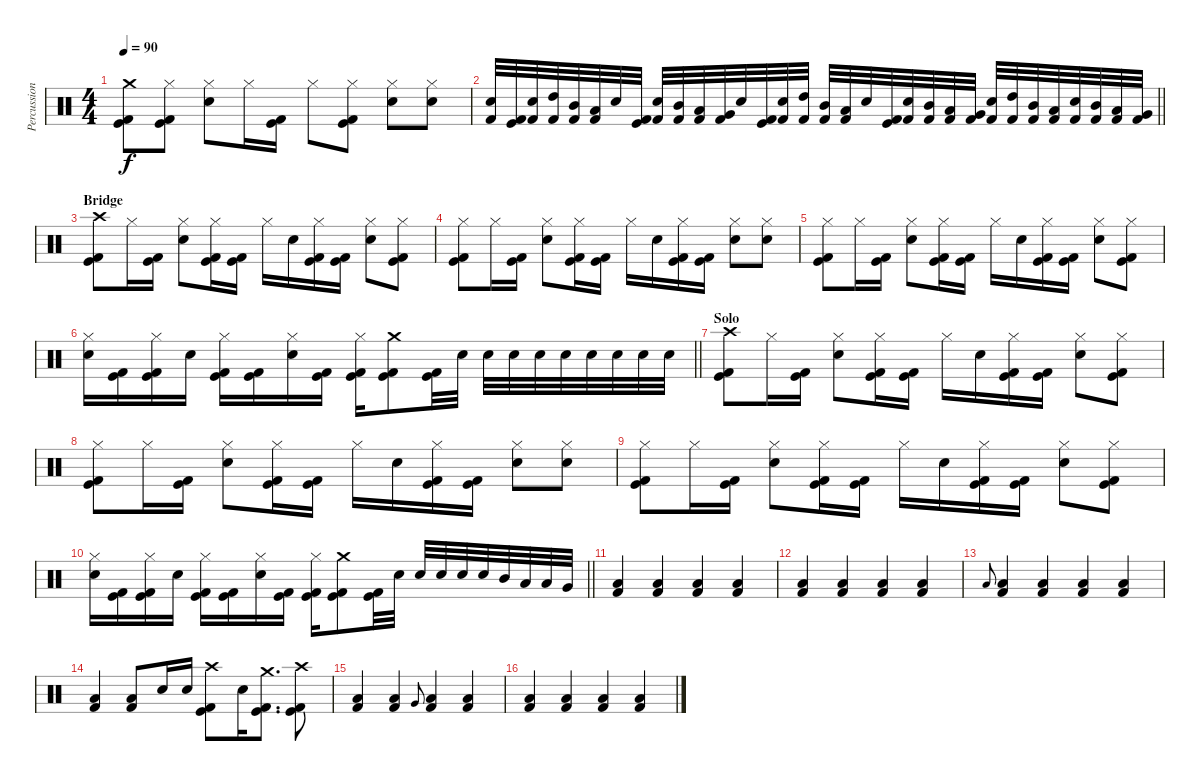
\track ("Percussion" "Percussion") {instrument percussion}
\staff {score}
\articulation defaults
\ts (4 4)
\tempo 90
\clef neutral
\ks c
("Crash medium (hit)" "Kick (hit)" "Kick (hit) 2").8{dy f} ("Hi-Hat (closed)" "Kick (hit)" "Kick (hit) 2").8 ("Hi-Hat (closed)" "Electric Snare (hit)").8 "Hi-Hat (closed)".16 ("Kick (hit)" "Kick (hit) 2").16 "Hi-Hat (closed)".8 ("Hi-Hat (closed)" "Kick (hit)" "Kick (hit) 2").8 ("Hi-Hat (closed)" "Electric Snare (hit)").8 ("Hi-Hat (closed)" "Electric Snare (hit)").8 |
\barLineRight lightlight
("Electric Snare (hit)" "Kick (hit) 2").32 ("Kick (hit)" "Kick (hit) 2").32 ("Electric Snare (hit)" "Kick (hit) 2").32 ("High Tom (hit)" "Kick (hit) 2").32 ("Mid Tom (hit)" "Kick (hit) 2").32 ("Low Tom (hit)" "Kick (hit) 2").32 "Electric Snare (hit)".32 ("Kick (hit)" "Kick (hit) 2").32 ("Electric Snare (hit)" "Kick (hit) 2").32 ("Mid Tom (hit)" "Kick (hit) 2").32 ("Low Tom (hit)" "Kick (hit) 2").32 ("Very Low Tom (hit)" "Kick (hit) 2").32 "Electric Snare (hit)".32 ("Kick (hit)" "Kick (hit) 2").32 ("Electric Snare (hit)" "Kick (hit) 2").32 ("High Tom (hit)" "Kick (hit) 2").32 ("Mid Tom (hit)" "Kick (hit) 2").32 ("Low Tom (hit)" "Kick (hit) 2").32 "Electric Snare (hit)".32 ("Kick (hit)" "Kick (hit) 2").32 ("Electric Snare (hit)" "Kick (hit) 2").32 ("Mid Tom (hit)" "Kick (hit) 2").32 ("Low Tom (hit)" "Kick (hit) 2").32 ("Very Low Tom (hit)" "Kick (hit) 2").32 ("Electric Snare (hit)" "Kick (hit) 2").32 ("High Tom (hit)" "Kick (hit) 2").32 ("Mid Tom (hit)" "Kick (hit) 2").32 ("Low Tom (hit)" "Kick (hit) 2").32 ("Electric Snare (hit)" "Kick (hit) 2").32 ("Mid Tom (hit)" "Kick (hit) 2").32 ("Low Tom (hit)" "Kick (hit) 2").32 ("Very Low Tom (hit)" "Kick (hit) 2").32 |
\section ("" "Bridge")
("Crash high (hit)" "Kick (hit)" "Kick (hit) 2").8 "Hi-Hat (closed)".16 ("Kick (hit)" "Kick (hit) 2").16 ("Hi-Hat (closed)" "Electric Snare (hit)").8 ("Hi-Hat (closed)" "Kick (hit)" "Kick (hit) 2").16 ("Kick (hit)" "Kick (hit) 2").16 "Hi-Hat (closed)".16 "Electric Snare (hit)".16 ("Hi-Hat (closed)" "Kick (hit)" "Kick (hit) 2").16 ("Kick (hit)" "Kick (hit) 2").16 ("Hi-Hat (closed)" "Electric Snare (hit)").8 ("Hi-Hat (closed)" "Kick (hit)" "Kick (hit) 2").8 |
("Hi-Hat (closed)" "Kick (hit)" "Kick (hit) 2").8 "Hi-Hat (closed)".16 ("Kick (hit)" "Kick (hit) 2").16 ("Hi-Hat (closed)" "Electric Snare (hit)").8 ("Hi-Hat (closed)" "Kick (hit)" "Kick (hit) 2").16 ("Kick (hit)" "Kick (hit) 2").16 "Hi-Hat (closed)".16 "Electric Snare (hit)".16 ("Hi-Hat (closed)" "Kick (hit)" "Kick (hit) 2").16 ("Kick (hit)" "Kick (hit) 2").16 ("Hi-Hat (closed)" "Electric Snare (hit)").8 ("Hi-Hat (closed)" "Electric Snare (hit)").8 |
("Hi-Hat (closed)" "Kick (hit)" "Kick (hit) 2").8 "Hi-Hat (closed)".16 ("Kick (hit)" "Kick (hit) 2").16 ("Hi-Hat (closed)" "Electric Snare (hit)").8 ("Hi-Hat (closed)" "Kick (hit)" "Kick (hit) 2").16 ("Kick (hit)" "Kick (hit) 2").16 "Hi-Hat (closed)".16 "Electric Snare (hit)".16 ("Hi-Hat (closed)" "Kick (hit)" "Kick (hit) 2").16 ("Kick (hit)" "Kick (hit) 2").16 ("Hi-Hat (closed)" "Electric Snare (hit)").8 ("Hi-Hat (closed)" "Kick (hit)" "Kick (hit) 2").8 |
\barLineRight lightlight
("Hi-Hat (closed)" "Electric Snare (hit)").16 ("Kick (hit)" "Kick (hit) 2").16 ("Hi-Hat (closed)" "Kick (hit)" "Kick (hit) 2").16 "Electric Snare (hit)".16 ("Hi-Hat (closed)" "Kick (hit)" "Kick (hit) 2").16 ("Kick (hit)" "Kick (hit) 2").16 ("Hi-Hat (closed)" "Electric Snare (hit)").16 ("Kick (hit)" "Kick (hit) 2").16 ("Hi-Hat (closed)" "Kick (hit)" "Kick (hit) 2").16 ("Crash medium (hit)" "Kick (hit)" "Kick (hit) 2").8 ("Kick (hit)" "Kick (hit) 2").32 "Electric Snare (hit)".32 "Electric Snare (hit)".32 "Electric Snare (hit)".32 "Electric Snare (hit)".32 "Electric Snare (hit)".32 "Electric Snare (hit)".32 "Electric Snare (hit)".32 "Electric Snare (hit)".32 "Electric Snare (hit)".32 |
\section ("" "Solo")
("Crash high (hit)" "Kick (hit)" "Kick (hit) 2").8 "Hi-Hat (closed)".16 ("Kick (hit)" "Kick (hit) 2").16 ("Hi-Hat (closed)" "Electric Snare (hit)").8 ("Hi-Hat (closed)" "Kick (hit)" "Kick (hit) 2").16 ("Kick (hit)" "Kick (hit) 2").16 "Hi-Hat (closed)".16 "Electric Snare (hit)".16 ("Hi-Hat (closed)" "Kick (hit)" "Kick (hit) 2").16 ("Kick (hit)" "Kick (hit) 2").16 ("Hi-Hat (closed)" "Electric Snare (hit)").8 ("Hi-Hat (closed)" "Kick (hit)" "Kick (hit) 2").8 |
("Hi-Hat (closed)" "Kick (hit)" "Kick (hit) 2").8 "Hi-Hat (closed)".16 ("Kick (hit)" "Kick (hit) 2").16 ("Hi-Hat (closed)" "Electric Snare (hit)").8 ("Hi-Hat (closed)" "Kick (hit)" "Kick (hit) 2").16 ("Kick (hit)" "Kick (hit) 2").16 "Hi-Hat (closed)".16 "Electric Snare (hit)".16 ("Hi-Hat (closed)" "Kick (hit)" "Kick (hit) 2").16 ("Kick (hit)" "Kick (hit) 2").16 ("Hi-Hat (closed)" "Electric Snare (hit)").8 ("Hi-Hat (closed)" "Electric Snare (hit)").8 |
("Hi-Hat (closed)" "Kick (hit)" "Kick (hit) 2").8 "Hi-Hat (closed)".16 ("Kick (hit)" "Kick (hit) 2").16 ("Hi-Hat (closed)" "Electric Snare (hit)").8 ("Hi-Hat (closed)" "Kick (hit)" "Kick (hit) 2").16 ("Kick (hit)" "Kick (hit) 2").16 "Hi-Hat (closed)".16 "Electric Snare (hit)".16 ("Hi-Hat (closed)" "Kick (hit)" "Kick (hit) 2").16 ("Kick (hit)" "Kick (hit) 2").16 ("Hi-Hat (closed)" "Electric Snare (hit)").8 ("Hi-Hat (closed)" "Kick (hit)" "Kick (hit) 2").8 |
\barLineRight lightlight
("Hi-Hat (closed)" "Electric Snare (hit)").16 ("Kick (hit)" "Kick (hit) 2").16 ("Hi-Hat (closed)" "Kick (hit)" "Kick (hit) 2").16 "Electric Snare (hit)".16 ("Hi-Hat (closed)" "Kick (hit)" "Kick (hit) 2").16 ("Kick (hit)" "Kick (hit) 2").16 ("Hi-Hat (closed)" "Electric Snare (hit)").16 ("Kick (hit)" "Kick (hit) 2").16 ("Hi-Hat (closed)" "Kick (hit)" "Kick (hit) 2").16 ("Crash medium (hit)" "Kick (hit)" "Kick (hit) 2").8 ("Kick (hit)" "Kick (hit) 2").32 "Electric Snare (hit)".32 "Electric Snare (hit)".32 "Electric Snare (hit)".32 "Electric Snare (hit)".32 "Electric Snare (hit)".32 "Mid Tom (hit)".32 "Low Tom (hit)".32 "Low Tom (hit)".32 "Very Low Tom (hit)".32 |
\section ("" "")
("Low Floor Tom (hit)" "Kick (hit) 2").4 ("Low Floor Tom (hit)" "Kick (hit) 2").4 ("Low Floor Tom (hit)" "Kick (hit) 2").4 ("Low Floor Tom (hit)" "Kick (hit) 2").4 |
("Low Floor Tom (hit)" "Kick (hit) 2").4 ("Low Floor Tom (hit)" "Kick (hit) 2").4 ("Low Floor Tom (hit)" "Kick (hit) 2").4 ("Low Floor Tom (hit)" "Kick (hit) 2").4 |
"Low Tom (hit)".8{gr onbeat} ("Low Floor Tom (hit)" "Kick (hit) 2").4 ("Low Floor Tom (hit)" "Kick (hit) 2").4 ("Low Floor Tom (hit)" "Kick (hit) 2").4 ("Low Floor Tom (hit)" "Kick (hit) 2").4 |
("Low Floor Tom (hit)" "Kick (hit) 2").4 ("Low Floor Tom (hit)" "Kick (hit) 2").8 "Electric Snare (hit)".16 "Electric Snare (hit)".16 ("Crash high (hit)" "Kick (hit)" "Kick (hit) 2").8 "Electric Snare (hit)".16 ("Crash medium (hit)" "Kick (hit)" "Kick (hit) 2").8{d} ("Crash high (hit)" "Kick (hit)" "Kick (hit) 2").8 |
("Low Floor Tom (hit)" "Kick (hit) 2").4 ("Low Floor Tom (hit)" "Kick (hit) 2").4 "Very Low Tom (hit)".8{gr onbeat} ("Low Floor Tom (hit)" "Kick (hit) 2").4 ("Low Floor Tom (hit)" "Kick (hit) 2").4 |
("Low Floor Tom (hit)" "Kick (hit) 2").4 ("Low Floor Tom (hit)" "Kick (hit) 2").4 ("Low Floor Tom (hit)" "Kick (hit) 2").4 ("Low Floor Tom (hit)" "Kick (hit) 2").4
